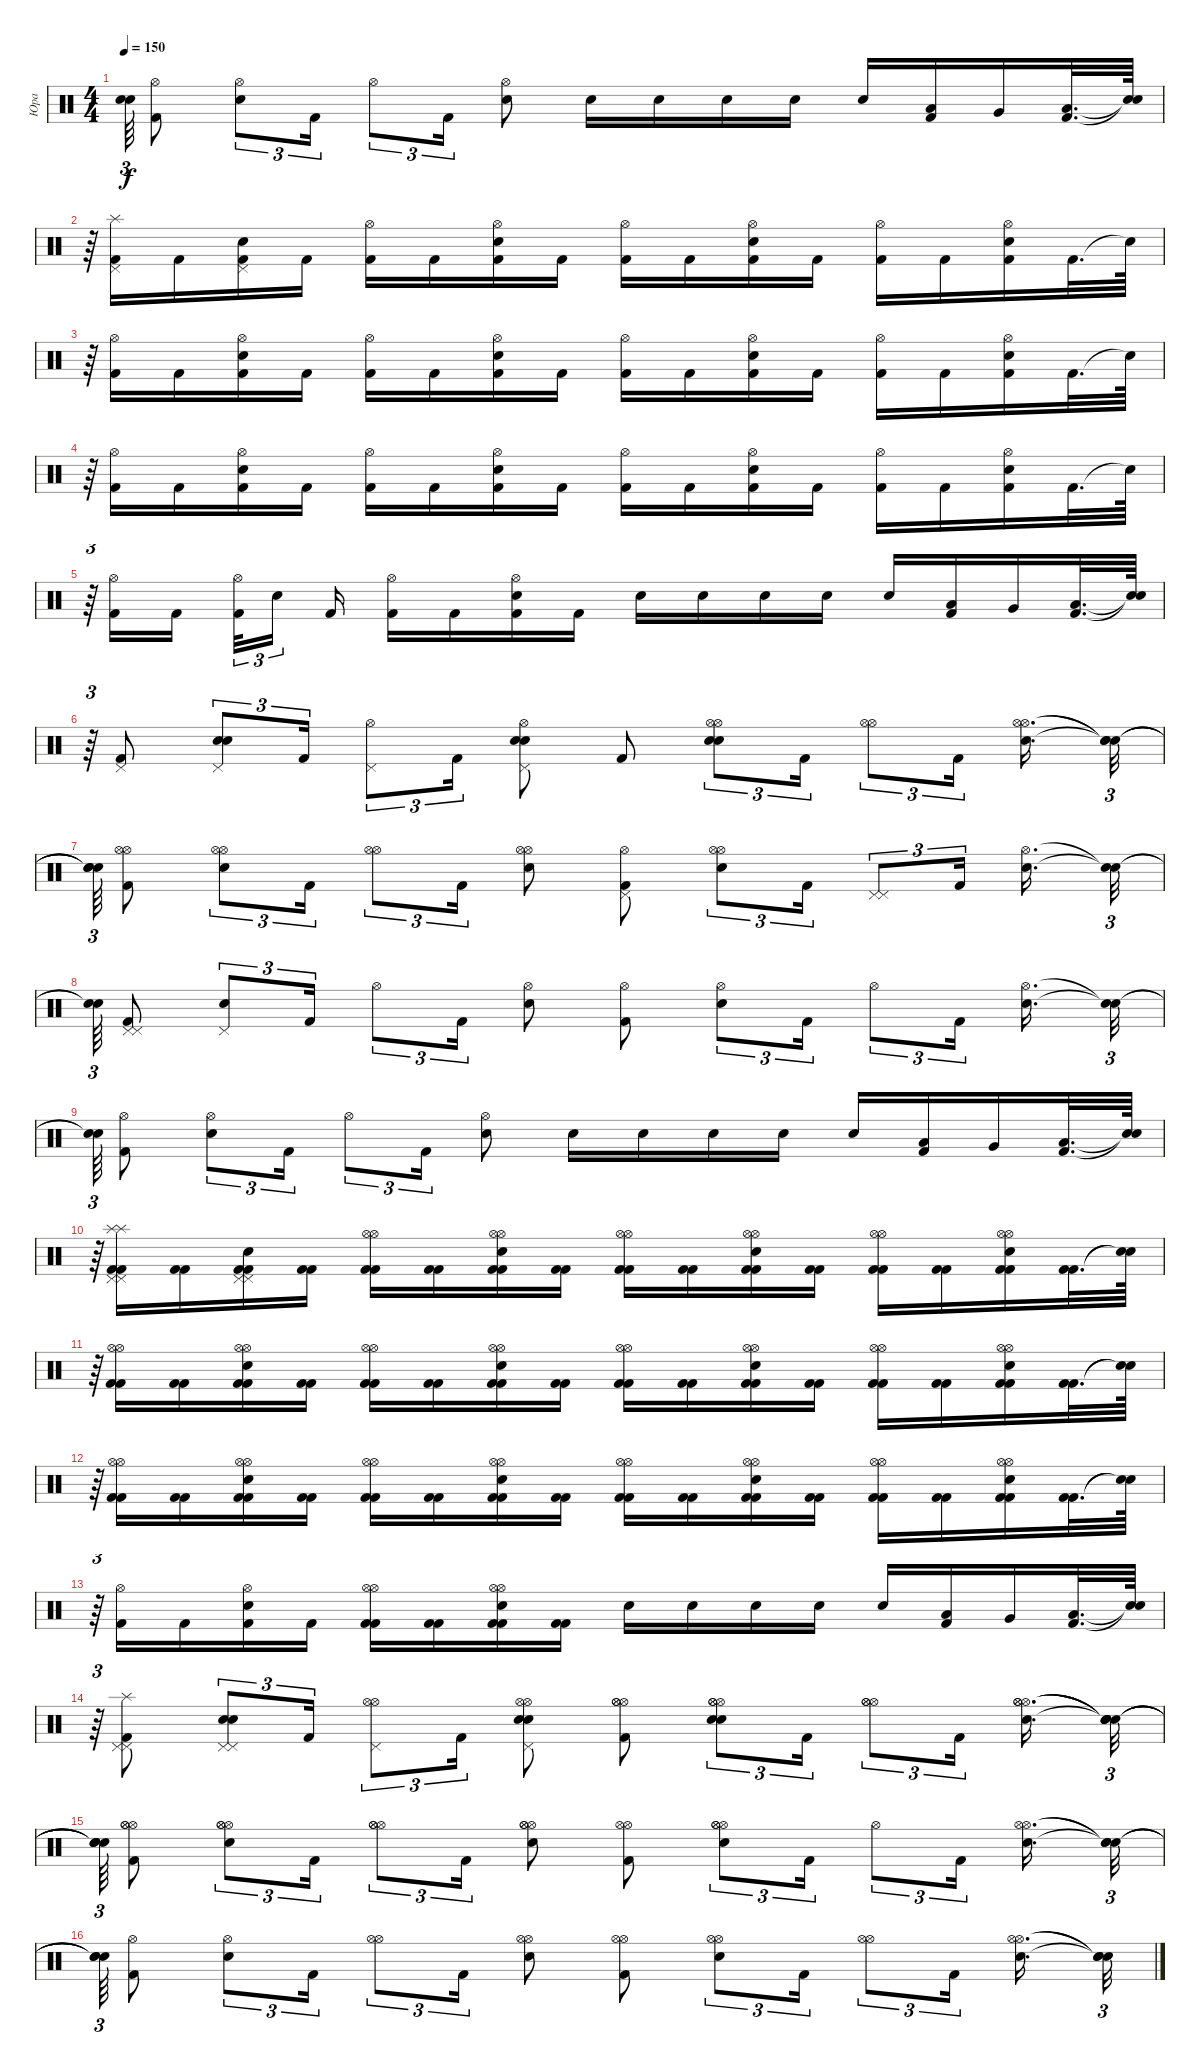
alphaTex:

\track ("Юра" "Юра") {instrument percussion}
\staff {score}
\articulation defaults
\ts (4 4)
\tempo 150
\clef neutral
\ks c
("Snare (hit)"{t} "Snare (hit)"{t}).64{tu (3 2) dy f} ("Hi-Hat (open)" "Kick (hit) 2").8 ("Hi-Hat (open)" "Electric Snare (hit)").8{tu (3 2)} "Kick (hit) 2".16{tu (3 2)} "Hi-Hat (open)".8{tu (3 2)} "Kick (hit) 2".16{tu (3 2)} ("Hi-Hat (open)" "Electric Snare (hit)").8 "Electric Snare (hit)".16 "Electric Snare (hit)".16 "Electric Snare (hit)".16 "Electric Snare (hit)".16 "Electric Snare (hit)".16 ("Kick (hit) 2" "Low Tom (hit)").16 "Very Low Tom (hit)".16 ("Kick (hit) 2" "Low Floor Tom (hit)").32{d} ("Snare (hit)"{t} "Snare (hit)"{t}).64 |
r.64{tu (3 2)} ("Kick (hit) 2" "Pedal Hi-Hat (hit)" "Splash (hit)").16 "Kick (hit) 2".16 ("Kick (hit) 2" "Pedal Hi-Hat (hit)" "Electric Snare (hit)").16 "Kick (hit) 2".16 ("Kick (hit) 2" "Hi-Hat (open)").16 "Kick (hit) 2".16 ("Kick (hit) 2" "Hi-Hat (open)" "Electric Snare (hit)").16 "Kick (hit) 2".16 ("Hi-Hat (open)" "Kick (hit) 2").16 "Kick (hit) 2".16 ("Kick (hit) 2" "Hi-Hat (open)" "Electric Snare (hit)").16 "Kick (hit) 2".16 ("Kick (hit) 2" "Hi-Hat (open)").16 "Kick (hit) 2".16 ("Kick (hit) 2" "Hi-Hat (open)" "Electric Snare (hit)").16 "Kick (hit) 2".32{d} "Snare (hit)"{t}.64 |
r.64{tu (3 2)} ("Kick (hit) 2" "Hi-Hat (open)").16 "Kick (hit) 2".16 ("Kick (hit) 2" "Hi-Hat (open)" "Electric Snare (hit)").16 "Kick (hit) 2".16 ("Kick (hit) 2" "Hi-Hat (open)").16 "Kick (hit) 2".16 ("Kick (hit) 2" "Hi-Hat (open)" "Electric Snare (hit)").16 "Kick (hit) 2".16 ("Kick (hit) 2" "Hi-Hat (open)").16 "Kick (hit) 2".16 ("Kick (hit) 2" "Hi-Hat (open)" "Electric Snare (hit)").16 "Kick (hit) 2".16 ("Kick (hit) 2" "Hi-Hat (open)").16 "Kick (hit) 2".16 ("Kick (hit) 2" "Hi-Hat (open)" "Electric Snare (hit)").16 "Kick (hit) 2".32{d} "Snare (hit)"{t}.64 |
r.64{tu (3 2)} ("Kick (hit) 2" "Hi-Hat (open)").16 "Kick (hit) 2".16 ("Kick (hit) 2" "Hi-Hat (open)" "Electric Snare (hit)").16 "Kick (hit) 2".16 ("Kick (hit) 2" "Hi-Hat (open)").16 "Kick (hit) 2".16 ("Kick (hit) 2" "Hi-Hat (open)" "Electric Snare (hit)").16 "Kick (hit) 2".16 ("Kick (hit) 2" "Hi-Hat (open)").16 "Kick (hit) 2".16 ("Kick (hit) 2" "Hi-Hat (open)" "Electric Snare (hit)").16 "Kick (hit) 2".16 ("Kick (hit) 2" "Hi-Hat (open)").16 "Kick (hit) 2".16 ("Kick (hit) 2" "Hi-Hat (open)" "Electric Snare (hit)").16 "Kick (hit) 2".32{d} "Snare (hit)"{t}.64 |
r.64{tu (3 2)} ("Hi-Hat (open)" "Kick (hit) 2").16 "Kick (hit) 2".16{beam splitsecondary} ("Kick (hit) 2" "Hi-Hat (open)").32{tu (3 2)} "Electric Snare (hit)".16{tu (3 2) beam splitsecondary} "Kick (hit) 2".16 ("Hi-Hat (open)" "Kick (hit) 2").16 "Kick (hit) 2".16 ("Kick (hit) 2" "Hi-Hat (open)" "Electric Snare (hit)").16 "Kick (hit) 2".16 "Electric Snare (hit)".16 "Electric Snare (hit)".16 "Electric Snare (hit)".16 "Electric Snare (hit)".16 "Electric Snare (hit)".16 ("Low Tom (hit)" "Kick (hit) 2").16 "Very Low Tom (hit)".16 ("Kick (hit) 2" "Low Floor Tom (hit)").32{d} ("Snare (hit)"{t} "Snare (hit)"{t}).64 |
r.64{tu (3 2)} ("Kick (hit) 2" "Pedal Hi-Hat (hit)").8 ("Pedal Hi-Hat (hit)" "Electric Snare (hit)" "Electric Snare (hit)").8{tu (3 2)} "Kick (hit) 2".16{tu (3 2)} ("Hi-Hat (open)" "Pedal Hi-Hat (hit)").8{tu (3 2)} "Kick (hit) 2".16{tu (3 2)} ("Hi-Hat (open)" "Electric Snare (hit)" "Electric Snare (hit)" "Pedal Hi-Hat (hit)").8 "Kick (hit) 2".8 ("Electric Snare (hit)" "Electric Snare (hit)" "Hi-Hat (open)" "Hi-Hat (open)").8{tu (3 2)} "Kick (hit) 2".16{tu (3 2)} ("Hi-Hat (open)" "Hi-Hat (open)").8{tu (3 2)} "Kick (hit) 2".16{tu (3 2) beam splitsecondary} ("Hi-Hat (open)" "Electric Snare (hit)" "Hi-Hat (open)").16{d} ("Snare (hit)"{t} "Snare (hit)"{t} "Snare (hit)"{t}).32{tu (3 2)} |
("Snare (hit)"{t} "Snare (hit)"{t} "Snare (hit)"{t}).64{tu (3 2)} ("Hi-Hat (open)" "Kick (hit) 2" "Hi-Hat (open)").8 ("Hi-Hat (open)" "Electric Snare (hit)" "Hi-Hat (open)").8{tu (3 2)} "Kick (hit) 2".16{tu (3 2)} ("Hi-Hat (open)" "Hi-Hat (open)").8{tu (3 2)} "Kick (hit) 2".16{tu (3 2)} ("Hi-Hat (open)" "Electric Snare (hit)" "Hi-Hat (open)").8 ("Pedal Hi-Hat (hit)" "Hi-Hat (open)" "Kick (hit) 2").8 ("Hi-Hat (open)" "Hi-Hat (open)" "Electric Snare (hit)").8{tu (3 2)} "Kick (hit) 2".16{tu (3 2)} ("Pedal Hi-Hat (hit)" "Pedal Hi-Hat (hit)").8{tu (3 2)} "Kick (hit) 2".16{tu (3 2) beam splitsecondary} ("Hi-Hat (open)" "Electric Snare (hit)").16{d} ("Snare (hit)"{t} "Snare (hit)"{t}).32{tu (3 2)} |
("Snare (hit)"{t} "Snare (hit)"{t}).64{tu (3 2)} ("Kick (hit) 2" "Pedal Hi-Hat (hit)" "Pedal Hi-Hat (hit)").8 ("Pedal Hi-Hat (hit)" "Electric Snare (hit)").8{tu (3 2)} "Kick (hit) 2".16{tu (3 2)} "Hi-Hat (open)".8{tu (3 2)} "Kick (hit) 2".16{tu (3 2)} ("Hi-Hat (open)" "Electric Snare (hit)").8 ("Kick (hit) 2" "Hi-Hat (open)").8 ("Electric Snare (hit)" "Hi-Hat (open)").8{tu (3 2)} "Kick (hit) 2".16{tu (3 2)} "Hi-Hat (open)".8{tu (3 2)} "Kick (hit) 2".16{tu (3 2) beam splitsecondary} ("Hi-Hat (open)" "Electric Snare (hit)").16{d} ("Snare (hit)"{t} "Snare (hit)"{t}).32{tu (3 2)} |
("Snare (hit)"{t} "Snare (hit)"{t}).64{tu (3 2)} ("Hi-Hat (open)" "Kick (hit) 2").8 ("Hi-Hat (open)" "Electric Snare (hit)").8{tu (3 2)} "Kick (hit) 2".16{tu (3 2)} "Hi-Hat (open)".8{tu (3 2)} "Kick (hit) 2".16{tu (3 2)} ("Electric Snare (hit)" "Hi-Hat (open)").8 "Electric Snare (hit)".16 "Electric Snare (hit)".16 "Electric Snare (hit)".16 "Electric Snare (hit)".16 "Electric Snare (hit)".16 ("Kick (hit) 2" "Low Tom (hit)").16 "Very Low Tom (hit)".16 ("Kick (hit) 2" "Low Floor Tom (hit)").32{d} ("Snare (hit)"{t} "Snare (hit)"{t}).64 |
r.64{tu (3 2)} ("Pedal Hi-Hat (hit)" "Splash (hit)" "Pedal Hi-Hat (hit)" "Splash (hit)" "Kick (hit) 2" "Kick (hit) 2").16 ("Kick (hit) 2" "Kick (hit) 2").16 ("Kick (hit) 2" "Electric Snare (hit)" "Pedal Hi-Hat (hit)" "Pedal Hi-Hat (hit)" "Kick (hit) 2").16 ("Kick (hit) 2" "Kick (hit) 2").16 ("Kick (hit) 2" "Hi-Hat (open)" "Hi-Hat (open)" "Kick (hit) 2").16 ("Kick (hit) 2" "Kick (hit) 2").16 ("Electric Snare (hit)" "Hi-Hat (open)" "Kick (hit) 2" "Kick (hit) 2" "Hi-Hat (open)").16 ("Kick (hit) 2" "Kick (hit) 2").16 ("Hi-Hat (open)" "Kick (hit) 2" "Hi-Hat (open)" "Kick (hit) 2").16 ("Kick (hit) 2" "Kick (hit) 2").16 ("Kick (hit) 2" "Electric Snare (hit)" "Kick (hit) 2" "Hi-Hat (open)" "Hi-Hat (open)").16 ("Kick (hit) 2" "Kick (hit) 2").16 ("Hi-Hat (open)" "Hi-Hat (open)" "Kick (hit) 2" "Kick (hit) 2").16 ("Kick (hit) 2" "Kick (hit) 2").16 ("Electric Snare (hit)" "Kick (hit) 2" "Hi-Hat (open)" "Kick (hit) 2" "Hi-Hat (open)").16 ("Kick (hit) 2" "Kick (hit) 2").32{d} ("Snare (hit)"{t} "Snare (hit)"{t}).64 |
r.64{tu (3 2)} ("Kick (hit) 2" "Hi-Hat (open)" "Hi-Hat (open)" "Kick (hit) 2").16 ("Kick (hit) 2" "Kick (hit) 2").16 ("Kick (hit) 2" "Hi-Hat (open)" "Kick (hit) 2" "Electric Snare (hit)" "Hi-Hat (open)").16 ("Kick (hit) 2" "Kick (hit) 2").16 ("Hi-Hat (open)" "Kick (hit) 2" "Kick (hit) 2" "Hi-Hat (open)").16 ("Kick (hit) 2" "Kick (hit) 2").16 ("Kick (hit) 2" "Hi-Hat (open)" "Electric Snare (hit)" "Hi-Hat (open)" "Kick (hit) 2").16 ("Kick (hit) 2" "Kick (hit) 2").16 ("Hi-Hat (open)" "Kick (hit) 2" "Kick (hit) 2" "Hi-Hat (open)").16 ("Kick (hit) 2" "Kick (hit) 2").16 ("Kick (hit) 2" "Hi-Hat (open)" "Hi-Hat (open)" "Electric Snare (hit)" "Kick (hit) 2").16 ("Kick (hit) 2" "Kick (hit) 2").16 ("Hi-Hat (open)" "Hi-Hat (open)" "Kick (hit) 2" "Kick (hit) 2").16 ("Kick (hit) 2" "Kick (hit) 2").16 ("Hi-Hat (open)" "Hi-Hat (open)" "Kick (hit) 2" "Electric Snare (hit)" "Kick (hit) 2").16 ("Kick (hit) 2" "Kick (hit) 2").32{d} ("Snare (hit)"{t} "Snare (hit)"{t}).64 |
r.64{tu (3 2)} ("Kick (hit) 2" "Hi-Hat (open)" "Hi-Hat (open)" "Kick (hit) 2").16 ("Kick (hit) 2" "Kick (hit) 2").16 ("Electric Snare (hit)" "Kick (hit) 2" "Kick (hit) 2" "Hi-Hat (open)" "Hi-Hat (open)").16 ("Kick (hit) 2" "Kick (hit) 2").16 ("Hi-Hat (open)" "Kick (hit) 2" "Hi-Hat (open)" "Kick (hit) 2").16 ("Kick (hit) 2" "Kick (hit) 2").16 ("Hi-Hat (open)" "Hi-Hat (open)" "Kick (hit) 2" "Electric Snare (hit)" "Kick (hit) 2").16 ("Kick (hit) 2" "Kick (hit) 2").16 ("Hi-Hat (open)" "Kick (hit) 2" "Kick (hit) 2" "Hi-Hat (open)").16 ("Kick (hit) 2" "Kick (hit) 2").16 ("Hi-Hat (open)" "Kick (hit) 2" "Electric Snare (hit)" "Kick (hit) 2" "Hi-Hat (open)").16 ("Kick (hit) 2" "Kick (hit) 2").16 ("Kick (hit) 2" "Hi-Hat (open)" "Hi-Hat (open)" "Kick (hit) 2").16 ("Kick (hit) 2" "Kick (hit) 2").16 ("Kick (hit) 2" "Hi-Hat (open)" "Electric Snare (hit)" "Hi-Hat (open)" "Kick (hit) 2").16 ("Kick (hit) 2" "Kick (hit) 2").32{d} ("Snare (hit)"{t} "Snare (hit)"{t}).64 |
r.64{tu (3 2)} ("Kick (hit) 2" "Hi-Hat (open)").16 "Kick (hit) 2".16 ("Kick (hit) 2" "Electric Snare (hit)" "Hi-Hat (open)").16 "Kick (hit) 2".16 ("Hi-Hat (open)" "Hi-Hat (open)" "Kick (hit) 2" "Kick (hit) 2").16 ("Kick (hit) 2" "Kick (hit) 2").16 ("Kick (hit) 2" "Hi-Hat (open)" "Electric Snare (hit)" "Kick (hit) 2" "Hi-Hat (open)").16 ("Kick (hit) 2" "Kick (hit) 2").16 "Electric Snare (hit)".16 "Electric Snare (hit)".16 "Electric Snare (hit)".16 "Electric Snare (hit)".16 "Electric Snare (hit)".16 ("Kick (hit) 2" "Low Tom (hit)").16 "Very Low Tom (hit)".16 ("Low Floor Tom (hit)" "Kick (hit) 2").32{d} ("Snare (hit)"{t} "Snare (hit)"{t}).64 |
r.64{tu (3 2)} ("Kick (hit) 2" "Splash (hit)" "Pedal Hi-Hat (hit)" "Pedal Hi-Hat (hit)").8 ("Electric Snare (hit)" "Pedal Hi-Hat (hit)" "Pedal Hi-Hat (hit)" "Electric Snare (hit)").8{tu (3 2)} "Kick (hit) 2".16{tu (3 2)} ("Hi-Hat (open)" "Pedal Hi-Hat (hit)" "Hi-Hat (open)").8{tu (3 2)} "Kick (hit) 2".16{tu (3 2)} ("Hi-Hat (open)" "Pedal Hi-Hat (hit)" "Hi-Hat (open)" "Electric Snare (hit)" "Electric Snare (hit)").8 ("Kick (hit) 2" "Hi-Hat (open)" "Hi-Hat (open)" "Hi-Hat (open)").8 ("Hi-Hat (open)" "Hi-Hat (open)" "Hi-Hat (open)" "Electric Snare (hit)" "Electric Snare (hit)").8{tu (3 2)} "Kick (hit) 2".16{tu (3 2)} ("Hi-Hat (open)" "Hi-Hat (open)" "Hi-Hat (open)").8{tu (3 2)} "Kick (hit) 2".16{tu (3 2) beam splitsecondary} ("Hi-Hat (open)" "Electric Snare (hit)" "Hi-Hat (open)" "Hi-Hat (open)").16{d} ("Snare (hit)"{t} "Snare (hit)"{t} "Snare (hit)"{t} "Snare (hit)"{t}).32{tu (3 2)} |
("Snare (hit)"{t} "Snare (hit)"{t} "Snare (hit)"{t} "Snare (hit)"{t}).64{tu (3 2)} ("Kick (hit) 2" "Hi-Hat (open)" "Hi-Hat (open)" "Hi-Hat (open)").8 ("Hi-Hat (open)" "Hi-Hat (open)" "Hi-Hat (open)" "Electric Snare (hit)").8{tu (3 2)} "Kick (hit) 2".16{tu (3 2)} ("Hi-Hat (open)" "Hi-Hat (open)" "Hi-Hat (open)").8{tu (3 2)} "Kick (hit) 2".16{tu (3 2)} ("Hi-Hat (open)" "Hi-Hat (open)" "Hi-Hat (open)" "Electric Snare (hit)").8 ("Kick (hit) 2" "Hi-Hat (open)" "Hi-Hat (open)").8 ("Electric Snare (hit)" "Hi-Hat (open)" "Hi-Hat (open)" "Hi-Hat (open)").8{tu (3 2)} "Kick (hit) 2".16{tu (3 2)} "Hi-Hat (open)".8{tu (3 2)} "Kick (hit) 2".16{tu (3 2) beam splitsecondary} ("Hi-Hat (open)" "Hi-Hat (open)" "Electric Snare (hit)").16{d} ("Snare (hit)"{t} "Snare (hit)"{t} "Snare (hit)"{t}).32{tu (3 2)} |
("Snare (hit)"{t} "Snare (hit)"{t} "Snare (hit)"{t}).64{tu (3 2)} ("Kick (hit) 2" "Hi-Hat (open)").8 ("Electric Snare (hit)" "Hi-Hat (open)").8{tu (3 2)} "Kick (hit) 2".16{tu (3 2)} ("Hi-Hat (open)" "Hi-Hat (open)").8{tu (3 2)} "Kick (hit) 2".16{tu (3 2)} ("Hi-Hat (open)" "Electric Snare (hit)" "Hi-Hat (open)").8 ("Kick (hit) 2" "Hi-Hat (open)" "Hi-Hat (open)").8 ("Hi-Hat (open)" "Hi-Hat (open)" "Electric Snare (hit)").8{tu (3 2)} "Kick (hit) 2".16{tu (3 2)} ("Hi-Hat (open)" "Hi-Hat (open)").8{tu (3 2)} "Kick (hit) 2".16{tu (3 2) beam splitsecondary} ("Hi-Hat (open)" "Electric Snare (hit)" "Hi-Hat (open)").16{d} ("Snare (hit)"{t} "Snare (hit)"{t} "Snare (hit)"{t}).32{tu (3 2)}
